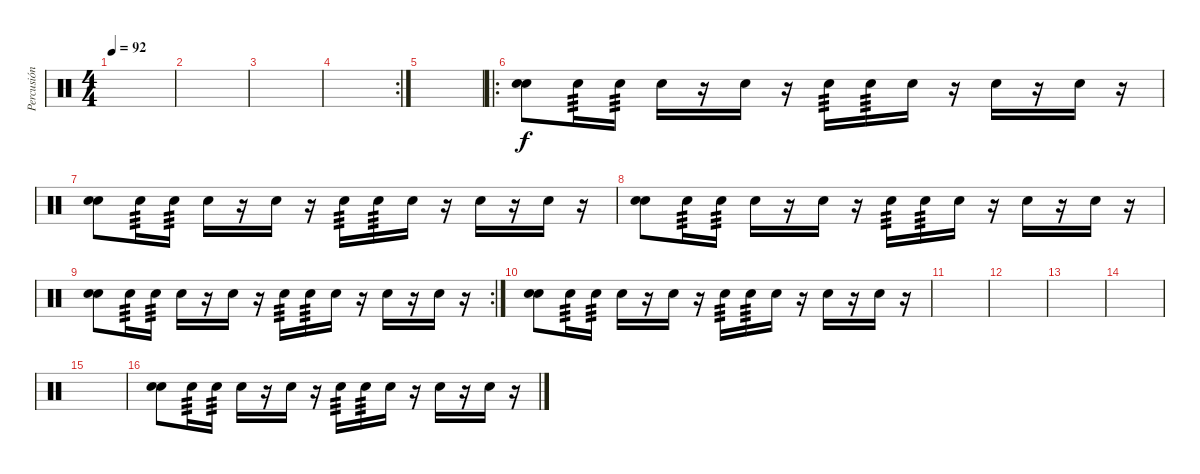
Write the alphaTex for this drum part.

\track ("Percusión" "Percusión") {instrument percussion}
\staff {score}
\articulation defaults
\ts (4 4)
\tempo 92
\clef neutral
\ks c
|
|
|
\rc 2
|
|
\ro
("Electric Snare (hit)" "Electric Snare (hit)").8{volume 6} "Electric Snare (hit)".16{tp 3} "Electric Snare (hit)".16{tp 3} "Electric Snare (hit)".16 r.16 "Electric Snare (hit)".16 r.16 "Electric Snare (hit)".16{tp 3} "Electric Snare (hit)".16{tp 3} "Electric Snare (hit)".16 r.16 "Electric Snare (hit)".16 r.16 "Electric Snare (hit)".16 r.16 |
("Electric Snare (hit)" "Electric Snare (hit)").8{volume 6} "Electric Snare (hit)".16{tp 3} "Electric Snare (hit)".16{tp 3} "Electric Snare (hit)".16 r.16 "Electric Snare (hit)".16 r.16 "Electric Snare (hit)".16{tp 3} "Electric Snare (hit)".16{tp 3} "Electric Snare (hit)".16 r.16 "Electric Snare (hit)".16 r.16 "Electric Snare (hit)".16 r.16 |
("Electric Snare (hit)" "Electric Snare (hit)").8{volume 6} "Electric Snare (hit)".16{tp 3} "Electric Snare (hit)".16{tp 3} "Electric Snare (hit)".16 r.16 "Electric Snare (hit)".16 r.16 "Electric Snare (hit)".16{tp 3} "Electric Snare (hit)".16{tp 3} "Electric Snare (hit)".16 r.16 "Electric Snare (hit)".16 r.16 "Electric Snare (hit)".16 r.16 |
\rc 2
("Electric Snare (hit)" "Electric Snare (hit)").8{volume 6} "Electric Snare (hit)".16{tp 3} "Electric Snare (hit)".16{tp 3} "Electric Snare (hit)".16 r.16 "Electric Snare (hit)".16 r.16 "Electric Snare (hit)".16{tp 3} "Electric Snare (hit)".16{tp 3} "Electric Snare (hit)".16 r.16 "Electric Snare (hit)".16 r.16 "Electric Snare (hit)".16 r.16 |
("Electric Snare (hit)" "Electric Snare (hit)").8{volume 0} "Electric Snare (hit)".16{tp 3} "Electric Snare (hit)".16{tp 3} "Electric Snare (hit)".16 r.16 "Electric Snare (hit)".16 r.16 "Electric Snare (hit)".16{tp 3} "Electric Snare (hit)".16{tp 3} "Electric Snare (hit)".16 r.16 "Electric Snare (hit)".16 r.16 "Electric Snare (hit)".16 r.16 |
|
|
|
|
|
("Electric Snare (hit)" "Electric Snare (hit)").8{volume 16} "Electric Snare (hit)".16{tp 3} "Electric Snare (hit)".16{tp 3} "Electric Snare (hit)".16 r.16 "Electric Snare (hit)".16 r.16 "Electric Snare (hit)".16{tp 3} "Electric Snare (hit)".16{tp 3} "Electric Snare (hit)".16 r.16 "Electric Snare (hit)".16 r.16 "Electric Snare (hit)".16 r.16
